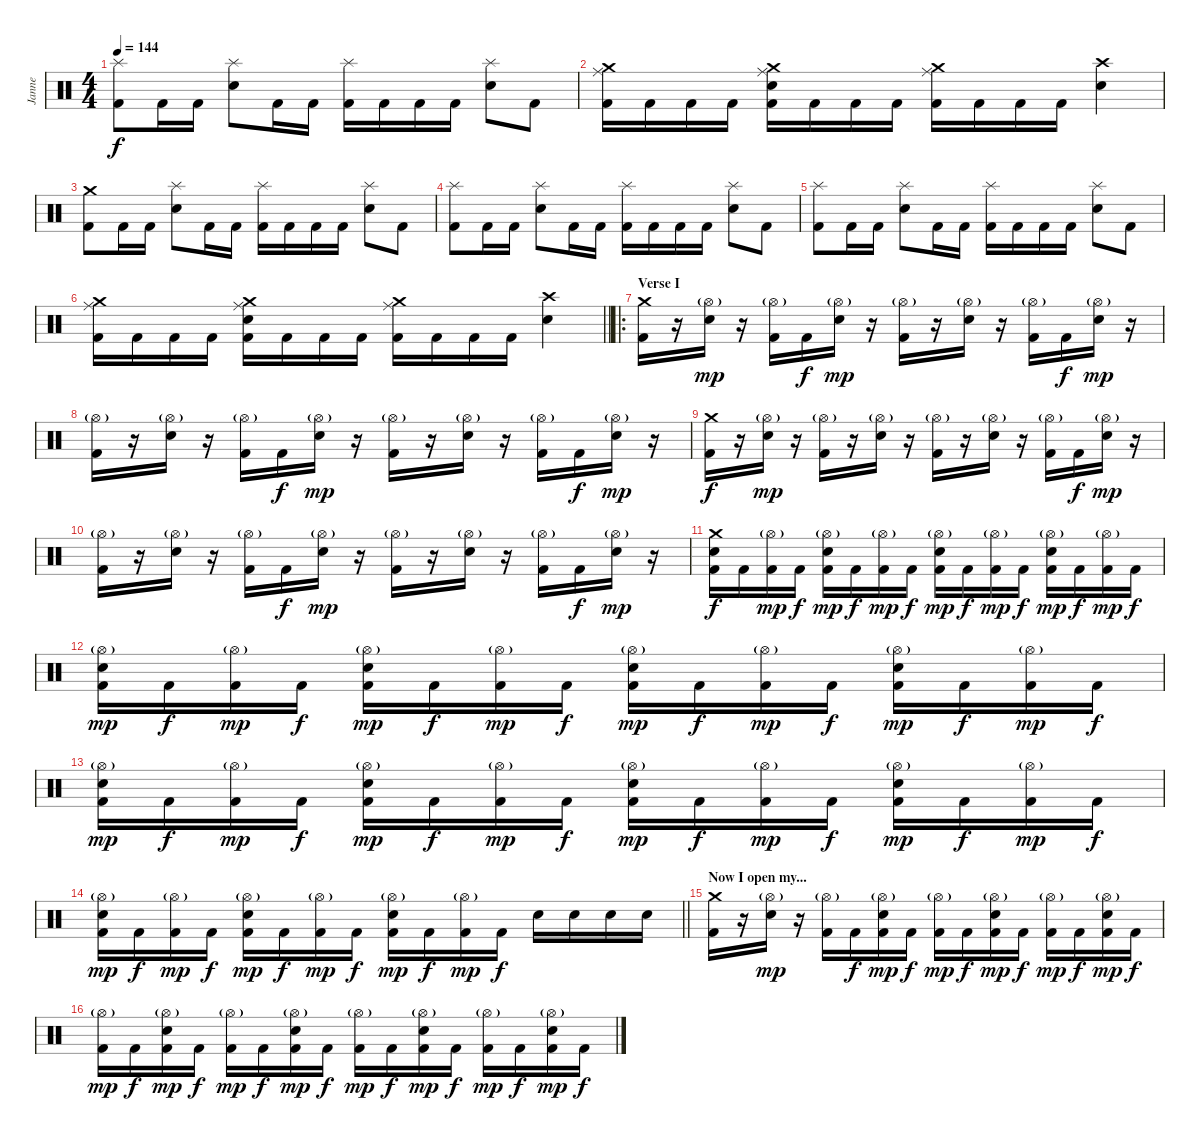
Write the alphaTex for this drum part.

\track ("Janne" "Janne") {instrument percussion}
\staff {score}
\articulation defaults
\ts (4 4)
\tempo 144
\clef neutral
\ks c
("Kick (hit) 2" "Splash (hit)").8{dy f} "Kick (hit) 2".16 "Kick (hit) 2".16 ("Snare (hit) 2" "Splash (hit)").8 "Kick (hit) 2".16 "Kick (hit) 2".16 ("Kick (hit) 2" "Splash (hit)").16 "Kick (hit) 2".16 "Kick (hit) 2".16 "Kick (hit) 2".16 ("Snare (hit) 2" "Splash (hit)").8 "Kick (hit) 2".8 |
("Kick (hit) 2" "Crash medium (hit)" "Ride (middle)").16 "Kick (hit) 2".16 "Kick (hit) 2".16 "Kick (hit) 2".16 ("Kick (hit) 2" "Snare (hit) 2" "Crash medium (hit)" "Ride (middle)").16 "Kick (hit) 2".16 "Kick (hit) 2".16 "Kick (hit) 2".16 ("Kick (hit) 2" "Crash medium (hit)" "Ride (middle)").16 "Kick (hit) 2".16 "Kick (hit) 2".16 "Kick (hit) 2".16 ("Snare (hit) 2" "Crash high (hit)").4 |
("Kick (hit) 2" "Crash medium (hit)").8 "Kick (hit) 2".16 "Kick (hit) 2".16 ("Snare (hit) 2" "Splash (hit)").8 "Kick (hit) 2".16 "Kick (hit) 2".16 ("Kick (hit) 2" "Splash (hit)").16 "Kick (hit) 2".16 "Kick (hit) 2".16 "Kick (hit) 2".16 ("Snare (hit) 2" "Splash (hit)").8 "Kick (hit) 2".8 |
("Kick (hit) 2" "Splash (hit)").8 "Kick (hit) 2".16 "Kick (hit) 2".16 ("Snare (hit) 2" "Splash (hit)").8 "Kick (hit) 2".16 "Kick (hit) 2".16 ("Kick (hit) 2" "Splash (hit)").16 "Kick (hit) 2".16 "Kick (hit) 2".16 "Kick (hit) 2".16 ("Snare (hit) 2" "Splash (hit)").8 "Kick (hit) 2".8 |
("Kick (hit) 2" "Splash (hit)").8 "Kick (hit) 2".16 "Kick (hit) 2".16 ("Snare (hit) 2" "Splash (hit)").8 "Kick (hit) 2".16 "Kick (hit) 2".16 ("Kick (hit) 2" "Splash (hit)").16 "Kick (hit) 2".16 "Kick (hit) 2".16 "Kick (hit) 2".16 ("Snare (hit) 2" "Splash (hit)").8 "Kick (hit) 2".8 |
\barLineRight lightlight
("Kick (hit) 2" "Crash medium (hit)" "Ride (middle)").16 "Kick (hit) 2".16 "Kick (hit) 2".16 "Kick (hit) 2".16 ("Kick (hit) 2" "Snare (hit) 2" "Crash medium (hit)" "Ride (middle)").16 "Kick (hit) 2".16 "Kick (hit) 2".16 "Kick (hit) 2".16 ("Kick (hit) 2" "Crash medium (hit)" "Ride (middle)").16 "Kick (hit) 2".16 "Kick (hit) 2".16 "Kick (hit) 2".16 ("Snare (hit) 2" "Crash high (hit)").4 |
\ro
\section ("" "Verse I")
("Kick (hit) 2" "Crash medium (hit)").16 r.16 ("Snare (hit) 2" "Hi-Hat (open)"{g}).16{dy mp} r.16 ("Kick (hit) 2" "Hi-Hat (open)"{g}).16 "Kick (hit) 2".16{dy f} ("Snare (hit) 2" "Hi-Hat (open)"{g}).16{dy mp} r.16 ("Kick (hit) 2" "Hi-Hat (open)"{g}).16 r.16 ("Snare (hit) 2" "Hi-Hat (open)"{g}).16 r.16 ("Kick (hit) 2" "Hi-Hat (open)"{g}).16 "Kick (hit) 2".16{dy f} ("Snare (hit) 2" "Hi-Hat (open)"{g}).16{dy mp} r.16 |
("Kick (hit) 2" "Hi-Hat (open)"{g}).16 r.16 ("Snare (hit) 2" "Hi-Hat (open)"{g}).16 r.16 ("Kick (hit) 2" "Hi-Hat (open)"{g}).16 "Kick (hit) 2".16{dy f} ("Snare (hit) 2" "Hi-Hat (open)"{g}).16{dy mp} r.16 ("Kick (hit) 2" "Hi-Hat (open)"{g}).16 r.16 ("Snare (hit) 2" "Hi-Hat (open)"{g}).16 r.16 ("Kick (hit) 2" "Hi-Hat (open)"{g}).16 "Kick (hit) 2".16{dy f} ("Snare (hit) 2" "Hi-Hat (open)"{g}).16{dy mp} r.16 |
("Kick (hit) 2" "Crash medium (hit)").16{dy f} r.16 ("Snare (hit) 2" "Hi-Hat (open)"{g}).16{dy mp} r.16 ("Kick (hit) 2" "Hi-Hat (open)"{g}).16 r.16 ("Snare (hit) 2" "Hi-Hat (open)"{g}).16 r.16 ("Kick (hit) 2" "Hi-Hat (open)"{g}).16 r.16 ("Snare (hit) 2" "Hi-Hat (open)"{g}).16 r.16 ("Kick (hit) 2" "Hi-Hat (open)"{g}).16 "Kick (hit) 2".16{dy f} ("Snare (hit) 2" "Hi-Hat (open)"{g}).16{dy mp} r.16 |
("Kick (hit) 2" "Hi-Hat (open)"{g}).16 r.16 ("Snare (hit) 2" "Hi-Hat (open)"{g}).16 r.16 ("Kick (hit) 2" "Hi-Hat (open)"{g}).16 "Kick (hit) 2".16{dy f} ("Snare (hit) 2" "Hi-Hat (open)"{g}).16{dy mp} r.16 ("Kick (hit) 2" "Hi-Hat (open)"{g}).16 r.16 ("Snare (hit) 2" "Hi-Hat (open)"{g}).16 r.16 ("Kick (hit) 2" "Hi-Hat (open)"{g}).16 "Kick (hit) 2".16{dy f} ("Snare (hit) 2" "Hi-Hat (open)"{g}).16{dy mp} r.16 |
("Kick (hit) 2" "Snare (hit) 2" "Crash medium (hit)").16{dy f} "Kick (hit) 2".16 ("Kick (hit) 2" "Hi-Hat (open)"{g}).16{dy mp} "Kick (hit) 2".16{dy f} ("Kick (hit) 2" "Snare (hit) 2" "Hi-Hat (open)"{g}).16{dy mp} "Kick (hit) 2".16{dy f} ("Kick (hit) 2" "Hi-Hat (open)"{g}).16{dy mp} "Kick (hit) 2".16{dy f} ("Kick (hit) 2" "Snare (hit) 2" "Hi-Hat (open)"{g}).16{dy mp} "Kick (hit) 2".16{dy f} ("Kick (hit) 2" "Hi-Hat (open)"{g}).16{dy mp} "Kick (hit) 2".16{dy f} ("Kick (hit) 2" "Snare (hit) 2" "Hi-Hat (open)"{g}).16{dy mp} "Kick (hit) 2".16{dy f} ("Kick (hit) 2" "Hi-Hat (open)"{g}).16{dy mp} "Kick (hit) 2".16{dy f} |
("Kick (hit) 2" "Snare (hit) 2" "Hi-Hat (open)"{g}).16{dy mp} "Kick (hit) 2".16{dy f} ("Kick (hit) 2" "Hi-Hat (open)"{g}).16{dy mp} "Kick (hit) 2".16{dy f} ("Kick (hit) 2" "Snare (hit) 2" "Hi-Hat (open)"{g}).16{dy mp} "Kick (hit) 2".16{dy f} ("Kick (hit) 2" "Hi-Hat (open)"{g}).16{dy mp} "Kick (hit) 2".16{dy f} ("Kick (hit) 2" "Snare (hit) 2" "Hi-Hat (open)"{g}).16{dy mp} "Kick (hit) 2".16{dy f} ("Kick (hit) 2" "Hi-Hat (open)"{g}).16{dy mp} "Kick (hit) 2".16{dy f} ("Kick (hit) 2" "Snare (hit) 2" "Hi-Hat (open)"{g}).16{dy mp} "Kick (hit) 2".16{dy f} ("Kick (hit) 2" "Hi-Hat (open)"{g}).16{dy mp} "Kick (hit) 2".16{dy f} |
("Kick (hit) 2" "Snare (hit) 2" "Hi-Hat (open)"{g}).16{dy mp} "Kick (hit) 2".16{dy f} ("Kick (hit) 2" "Hi-Hat (open)"{g}).16{dy mp} "Kick (hit) 2".16{dy f} ("Kick (hit) 2" "Snare (hit) 2" "Hi-Hat (open)"{g}).16{dy mp} "Kick (hit) 2".16{dy f} ("Kick (hit) 2" "Hi-Hat (open)"{g}).16{dy mp} "Kick (hit) 2".16{dy f} ("Kick (hit) 2" "Snare (hit) 2" "Hi-Hat (open)"{g}).16{dy mp} "Kick (hit) 2".16{dy f} ("Kick (hit) 2" "Hi-Hat (open)"{g}).16{dy mp} "Kick (hit) 2".16{dy f} ("Kick (hit) 2" "Snare (hit) 2" "Hi-Hat (open)"{g}).16{dy mp} "Kick (hit) 2".16{dy f} ("Kick (hit) 2" "Hi-Hat (open)"{g}).16{dy mp} "Kick (hit) 2".16{dy f} |
\barLineRight lightlight
("Kick (hit) 2" "Snare (hit) 2" "Hi-Hat (open)"{g}).16{dy mp} "Kick (hit) 2".16{dy f} ("Kick (hit) 2" "Hi-Hat (open)"{g}).16{dy mp} "Kick (hit) 2".16{dy f} ("Kick (hit) 2" "Snare (hit) 2" "Hi-Hat (open)"{g}).16{dy mp} "Kick (hit) 2".16{dy f} ("Kick (hit) 2" "Hi-Hat (open)"{g}).16{dy mp} "Kick (hit) 2".16{dy f} ("Kick (hit) 2" "Snare (hit) 2" "Hi-Hat (open)"{g}).16{dy mp} "Kick (hit) 2".16{dy f} ("Kick (hit) 2" "Hi-Hat (open)"{g}).16{dy mp} "Kick (hit) 2".16{dy f} "Snare (hit) 2".16 "Snare (hit) 2".16 "Snare (hit) 2".16 "Snare (hit) 2".16 |
\section ("" "Now I open my...")
("Kick (hit) 2" "Crash medium (hit)").16 r.16 ("Snare (hit) 2" "Hi-Hat (open)"{g}).16{dy mp} r.16 ("Kick (hit) 2" "Hi-Hat (open)"{g}).16 "Kick (hit) 2".16{dy f} ("Kick (hit) 2" "Snare (hit) 2" "Hi-Hat (open)"{g}).16{dy mp} "Kick (hit) 2".16{dy f} ("Kick (hit) 2" "Hi-Hat (open)"{g}).16{dy mp} "Kick (hit) 2".16{dy f} ("Kick (hit) 2" "Snare (hit) 2" "Hi-Hat (open)"{g}).16{dy mp} "Kick (hit) 2".16{dy f} ("Kick (hit) 2" "Hi-Hat (open)"{g}).16{dy mp} "Kick (hit) 2".16{dy f} ("Kick (hit) 2" "Snare (hit) 2" "Hi-Hat (open)"{g}).16{dy mp} "Kick (hit) 2".16{dy f} |
("Kick (hit) 2" "Hi-Hat (open)"{g}).16{dy mp} "Kick (hit) 2".16{dy f} ("Kick (hit) 2" "Snare (hit) 2" "Hi-Hat (open)"{g}).16{dy mp} "Kick (hit) 2".16{dy f} ("Kick (hit) 2" "Hi-Hat (open)"{g}).16{dy mp} "Kick (hit) 2".16{dy f} ("Kick (hit) 2" "Snare (hit) 2" "Hi-Hat (open)"{g}).16{dy mp} "Kick (hit) 2".16{dy f} ("Kick (hit) 2" "Hi-Hat (open)"{g}).16{dy mp} "Kick (hit) 2".16{dy f} ("Kick (hit) 2" "Snare (hit) 2" "Hi-Hat (open)"{g}).16{dy mp} "Kick (hit) 2".16{dy f} ("Kick (hit) 2" "Hi-Hat (open)"{g}).16{dy mp} "Kick (hit) 2".16{dy f} ("Kick (hit) 2" "Snare (hit) 2" "Hi-Hat (open)"{g}).16{dy mp} "Kick (hit) 2".16{dy f}
